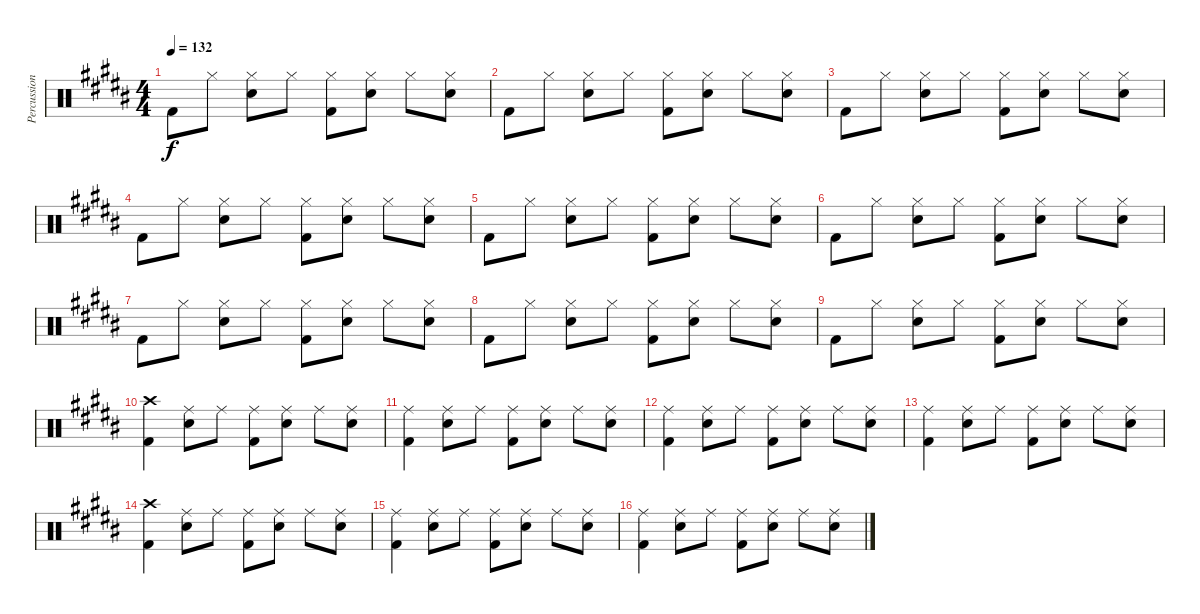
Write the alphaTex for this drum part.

\track ("Percussions (Will Champion)" "Percussion") {instrument percussion}
\staff {score}
\articulation defaults
\ts (4 4)
\tempo 132
\clef neutral
\ks b "Kick (hit) 2".8{dy f} "Hi-Hat (closed)".8
("Hi-Hat (closed)" "Snare (hit) 2").8 "Hi-Hat (closed)".8 ("Hi-Hat (closed)" "Kick (hit) 2").8 ("Hi-Hat (closed)" "Snare (hit) 2").8 "Hi-Hat (closed)".8 ("Hi-Hat (closed)" "Snare (hit) 2").8 |
"Kick (hit) 2".8 "Hi-Hat (closed)".8 ("Hi-Hat (closed)" "Snare (hit) 2").8 "Hi-Hat (closed)".8 ("Hi-Hat (closed)" "Kick (hit) 2").8 ("Hi-Hat (closed)" "Snare (hit) 2").8 "Hi-Hat (closed)".8 ("Hi-Hat (closed)" "Snare (hit) 2").8 |
"Kick (hit) 2".8 "Hi-Hat (closed)".8 ("Hi-Hat (closed)" "Snare (hit) 2").8 "Hi-Hat (closed)".8 ("Hi-Hat (closed)" "Kick (hit) 2").8 ("Hi-Hat (closed)" "Snare (hit) 2").8 "Hi-Hat (closed)".8 ("Hi-Hat (closed)" "Snare (hit) 2").8 |
"Kick (hit) 2".8 "Hi-Hat (closed)".8 ("Hi-Hat (closed)" "Snare (hit) 2").8 "Hi-Hat (closed)".8 ("Hi-Hat (closed)" "Kick (hit) 2").8 ("Hi-Hat (closed)" "Snare (hit) 2").8 "Hi-Hat (closed)".8 ("Hi-Hat (closed)" "Snare (hit) 2").8 |
"Kick (hit) 2".8 "Hi-Hat (closed)".8 ("Hi-Hat (closed)" "Snare (hit) 2").8 "Hi-Hat (closed)".8 ("Hi-Hat (closed)" "Kick (hit) 2").8 ("Hi-Hat (closed)" "Snare (hit) 2").8 "Hi-Hat (closed)".8 ("Hi-Hat (closed)" "Snare (hit) 2").8 |
"Kick (hit) 2".8 "Hi-Hat (closed)".8 ("Hi-Hat (closed)" "Snare (hit) 2").8 "Hi-Hat (closed)".8 ("Hi-Hat (closed)" "Kick (hit) 2").8 ("Hi-Hat (closed)" "Snare (hit) 2").8 "Hi-Hat (closed)".8 ("Hi-Hat (closed)" "Snare (hit) 2").8 |
"Kick (hit) 2".8 "Hi-Hat (closed)".8 ("Hi-Hat (closed)" "Snare (hit) 2").8 "Hi-Hat (closed)".8 ("Hi-Hat (closed)" "Kick (hit) 2").8 ("Hi-Hat (closed)" "Snare (hit) 2").8 "Hi-Hat (closed)".8 ("Hi-Hat (closed)" "Snare (hit) 2").8 |
"Kick (hit) 2".8 "Hi-Hat (closed)".8 ("Hi-Hat (closed)" "Snare (hit) 2").8 "Hi-Hat (closed)".8 ("Hi-Hat (closed)" "Kick (hit) 2").8 ("Hi-Hat (closed)" "Snare (hit) 2").8 "Hi-Hat (closed)".8 ("Hi-Hat (closed)" "Snare (hit) 2").8 |
"Kick (hit) 2".8 "Hi-Hat (closed)".8 ("Hi-Hat (closed)" "Snare (hit) 2").8 "Hi-Hat (closed)".8 ("Hi-Hat (closed)" "Kick (hit) 2").8 ("Hi-Hat (closed)" "Snare (hit) 2").8 "Hi-Hat (closed)".8 ("Hi-Hat (closed)" "Snare (hit) 2").8 |
("Crash high (hit)" "Kick (hit) 2").4 ("Ride (middle)" "Snare (hit) 2").8 "Ride (middle)".8 ("Ride (middle)" "Kick (hit) 2").8 ("Ride (middle)" "Snare (hit) 2").8 "Ride (middle)".8 ("Ride (middle)" "Snare (hit) 2").8 |
("Ride (middle)" "Kick (hit) 2").4 ("Ride (middle)" "Snare (hit) 2").8 "Ride (middle)".8 ("Ride (middle)" "Kick (hit) 2").8 ("Ride (middle)" "Snare (hit) 2").8 "Ride (middle)".8 ("Ride (middle)" "Snare (hit) 2").8 |
("Ride (middle)" "Kick (hit) 2").4 ("Ride (middle)" "Snare (hit) 2").8 "Ride (middle)".8 ("Ride (middle)" "Kick (hit) 2").8 ("Ride (middle)" "Snare (hit) 2").8 "Ride (middle)".8 ("Ride (middle)" "Snare (hit) 2").8 |
("Ride (middle)" "Kick (hit) 2").4 ("Ride (middle)" "Snare (hit) 2").8 "Ride (middle)".8 ("Ride (middle)" "Kick (hit) 2").8 ("Ride (middle)" "Snare (hit) 2").8 "Ride (middle)".8 ("Ride (middle)" "Snare (hit) 2").8 |
("Crash high (hit)" "Kick (hit) 2").4 ("Ride (middle)" "Snare (hit) 2").8 "Ride (middle)".8 ("Ride (middle)" "Kick (hit) 2").8 ("Ride (middle)" "Snare (hit) 2").8 "Ride (middle)".8 ("Ride (middle)" "Snare (hit) 2").8 |
("Ride (middle)" "Kick (hit) 2").4 ("Ride (middle)" "Snare (hit) 2").8 "Ride (middle)".8 ("Ride (middle)" "Kick (hit) 2").8 ("Ride (middle)" "Snare (hit) 2").8 "Ride (middle)".8 ("Ride (middle)" "Snare (hit) 2").8 |
("Ride (middle)" "Kick (hit) 2").4 ("Ride (middle)" "Snare (hit) 2").8 "Ride (middle)".8 ("Ride (middle)" "Kick (hit) 2").8 ("Ride (middle)" "Snare (hit) 2").8 "Ride (middle)".8 ("Ride (middle)" "Snare (hit) 2").8
